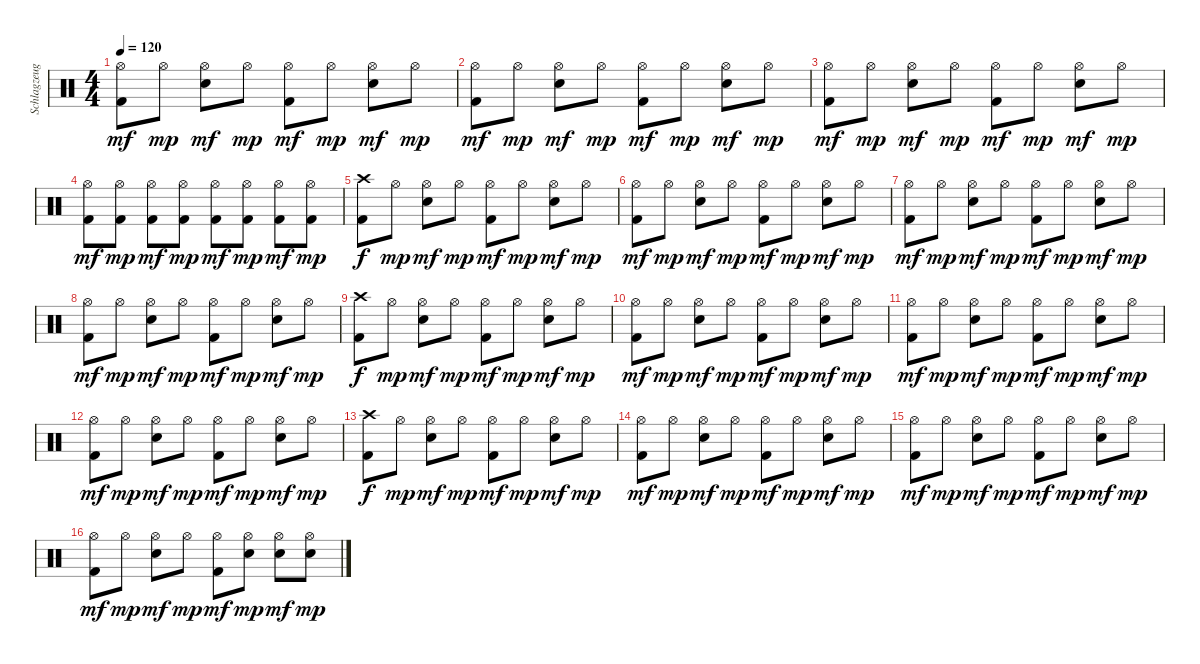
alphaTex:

\track ("Schlagzeug" "Schlagzeug") {instrument percussion}
\staff {score}
\articulation defaults
\ts (4 4)
\tempo 120
\clef neutral
\ks c
("Hi-Hat (open)" "Kick (hit) 2").8{dy mf} "Hi-Hat (open)".8{dy mp} ("Hi-Hat (open)" "Electric Snare (hit)").8{dy mf} "Hi-Hat (open)".8{dy mp} ("Hi-Hat (open)" "Kick (hit) 2").8{dy mf} "Hi-Hat (open)".8{dy mp} ("Hi-Hat (open)" "Electric Snare (hit)").8{dy mf} "Hi-Hat (open)".8{dy mp} |
("Hi-Hat (open)" "Kick (hit) 2").8{dy mf} "Hi-Hat (open)".8{dy mp} ("Hi-Hat (open)" "Electric Snare (hit)").8{dy mf} "Hi-Hat (open)".8{dy mp} ("Hi-Hat (open)" "Kick (hit) 2").8{dy mf} "Hi-Hat (open)".8{dy mp} ("Hi-Hat (open)" "Electric Snare (hit)").8{dy mf} "Hi-Hat (open)".8{dy mp} |
("Hi-Hat (open)" "Kick (hit) 2").8{dy mf} "Hi-Hat (open)".8{dy mp} ("Hi-Hat (open)" "Electric Snare (hit)").8{dy mf} "Hi-Hat (open)".8{dy mp} ("Hi-Hat (open)" "Kick (hit) 2").8{dy mf} "Hi-Hat (open)".8{dy mp} ("Hi-Hat (open)" "Electric Snare (hit)").8{dy mf} "Hi-Hat (open)".8{dy mp} |
("Hi-Hat (open)" "Kick (hit) 2").8{dy mf} ("Hi-Hat (open)" "Kick (hit) 2").8{dy mp} ("Hi-Hat (open)" "Kick (hit) 2").8{dy mf} ("Hi-Hat (open)" "Kick (hit) 2").8{dy mp} ("Hi-Hat (open)" "Kick (hit) 2").8{dy mf} ("Hi-Hat (open)" "Kick (hit) 2").8{dy mp} ("Hi-Hat (open)" "Kick (hit) 2").8{dy mf} ("Hi-Hat (open)" "Kick (hit) 2").8{dy mp} |
("Crash high (hit)" "Kick (hit) 2").8{dy f} "Hi-Hat (open)".8{dy mp} ("Hi-Hat (open)" "Electric Snare (hit)").8{dy mf} "Hi-Hat (open)".8{dy mp} ("Hi-Hat (open)" "Kick (hit) 2").8{dy mf} "Hi-Hat (open)".8{dy mp} ("Hi-Hat (open)" "Electric Snare (hit)").8{dy mf} "Hi-Hat (open)".8{dy mp} |
("Hi-Hat (open)" "Kick (hit) 2").8{dy mf} "Hi-Hat (open)".8{dy mp} ("Hi-Hat (open)" "Electric Snare (hit)").8{dy mf} "Hi-Hat (open)".8{dy mp} ("Hi-Hat (open)" "Kick (hit) 2").8{dy mf} "Hi-Hat (open)".8{dy mp} ("Hi-Hat (open)" "Electric Snare (hit)").8{dy mf} "Hi-Hat (open)".8{dy mp} |
("Hi-Hat (open)" "Kick (hit) 2").8{dy mf} "Hi-Hat (open)".8{dy mp} ("Hi-Hat (open)" "Electric Snare (hit)").8{dy mf} "Hi-Hat (open)".8{dy mp} ("Hi-Hat (open)" "Kick (hit) 2").8{dy mf} "Hi-Hat (open)".8{dy mp} ("Hi-Hat (open)" "Electric Snare (hit)").8{dy mf} "Hi-Hat (open)".8{dy mp} |
("Hi-Hat (open)" "Kick (hit) 2").8{dy mf} "Hi-Hat (open)".8{dy mp} ("Hi-Hat (open)" "Electric Snare (hit)").8{dy mf} "Hi-Hat (open)".8{dy mp} ("Hi-Hat (open)" "Kick (hit) 2").8{dy mf} "Hi-Hat (open)".8{dy mp} ("Hi-Hat (open)" "Electric Snare (hit)").8{dy mf} "Hi-Hat (open)".8{dy mp} |
("Crash high (hit)" "Kick (hit) 2").8{dy f} "Hi-Hat (open)".8{dy mp} ("Hi-Hat (open)" "Electric Snare (hit)").8{dy mf} "Hi-Hat (open)".8{dy mp} ("Hi-Hat (open)" "Kick (hit) 2").8{dy mf} "Hi-Hat (open)".8{dy mp} ("Hi-Hat (open)" "Electric Snare (hit)").8{dy mf} "Hi-Hat (open)".8{dy mp} |
("Hi-Hat (open)" "Kick (hit) 2").8{dy mf} "Hi-Hat (open)".8{dy mp} ("Hi-Hat (open)" "Electric Snare (hit)").8{dy mf} "Hi-Hat (open)".8{dy mp} ("Hi-Hat (open)" "Kick (hit) 2").8{dy mf} "Hi-Hat (open)".8{dy mp} ("Hi-Hat (open)" "Electric Snare (hit)").8{dy mf} "Hi-Hat (open)".8{dy mp} |
("Hi-Hat (open)" "Kick (hit) 2").8{dy mf} "Hi-Hat (open)".8{dy mp} ("Hi-Hat (open)" "Electric Snare (hit)").8{dy mf} "Hi-Hat (open)".8{dy mp} ("Hi-Hat (open)" "Kick (hit) 2").8{dy mf} "Hi-Hat (open)".8{dy mp} ("Hi-Hat (open)" "Electric Snare (hit)").8{dy mf} "Hi-Hat (open)".8{dy mp} |
("Hi-Hat (open)" "Kick (hit) 2").8{dy mf} "Hi-Hat (open)".8{dy mp} ("Hi-Hat (open)" "Electric Snare (hit)").8{dy mf} "Hi-Hat (open)".8{dy mp} ("Hi-Hat (open)" "Kick (hit) 2").8{dy mf} "Hi-Hat (open)".8{dy mp} ("Hi-Hat (open)" "Electric Snare (hit)").8{dy mf} "Hi-Hat (open)".8{dy mp} |
("Crash high (hit)" "Kick (hit) 2").8{dy f} "Hi-Hat (open)".8{dy mp} ("Hi-Hat (open)" "Electric Snare (hit)").8{dy mf} "Hi-Hat (open)".8{dy mp} ("Hi-Hat (open)" "Kick (hit) 2").8{dy mf} "Hi-Hat (open)".8{dy mp} ("Hi-Hat (open)" "Electric Snare (hit)").8{dy mf} "Hi-Hat (open)".8{dy mp} |
("Hi-Hat (open)" "Kick (hit) 2").8{dy mf} "Hi-Hat (open)".8{dy mp} ("Hi-Hat (open)" "Electric Snare (hit)").8{dy mf} "Hi-Hat (open)".8{dy mp} ("Hi-Hat (open)" "Kick (hit) 2").8{dy mf} "Hi-Hat (open)".8{dy mp} ("Hi-Hat (open)" "Electric Snare (hit)").8{dy mf} "Hi-Hat (open)".8{dy mp} |
("Hi-Hat (open)" "Kick (hit) 2").8{dy mf} "Hi-Hat (open)".8{dy mp} ("Hi-Hat (open)" "Electric Snare (hit)").8{dy mf} "Hi-Hat (open)".8{dy mp} ("Hi-Hat (open)" "Kick (hit) 2").8{dy mf} "Hi-Hat (open)".8{dy mp} ("Hi-Hat (open)" "Electric Snare (hit)").8{dy mf} "Hi-Hat (open)".8{dy mp} |
("Hi-Hat (open)" "Kick (hit) 2").8{dy mf} "Hi-Hat (open)".8{dy mp} ("Hi-Hat (open)" "Electric Snare (hit)").8{dy mf} "Hi-Hat (open)".8{dy mp} ("Hi-Hat (open)" "Kick (hit) 2").8{dy mf} ("Hi-Hat (open)" "Electric Snare (hit)").8{dy mp} ("Hi-Hat (open)" "Electric Snare (hit)").8{dy mf} ("Hi-Hat (open)" "Electric Snare (hit)").8{dy mp}
